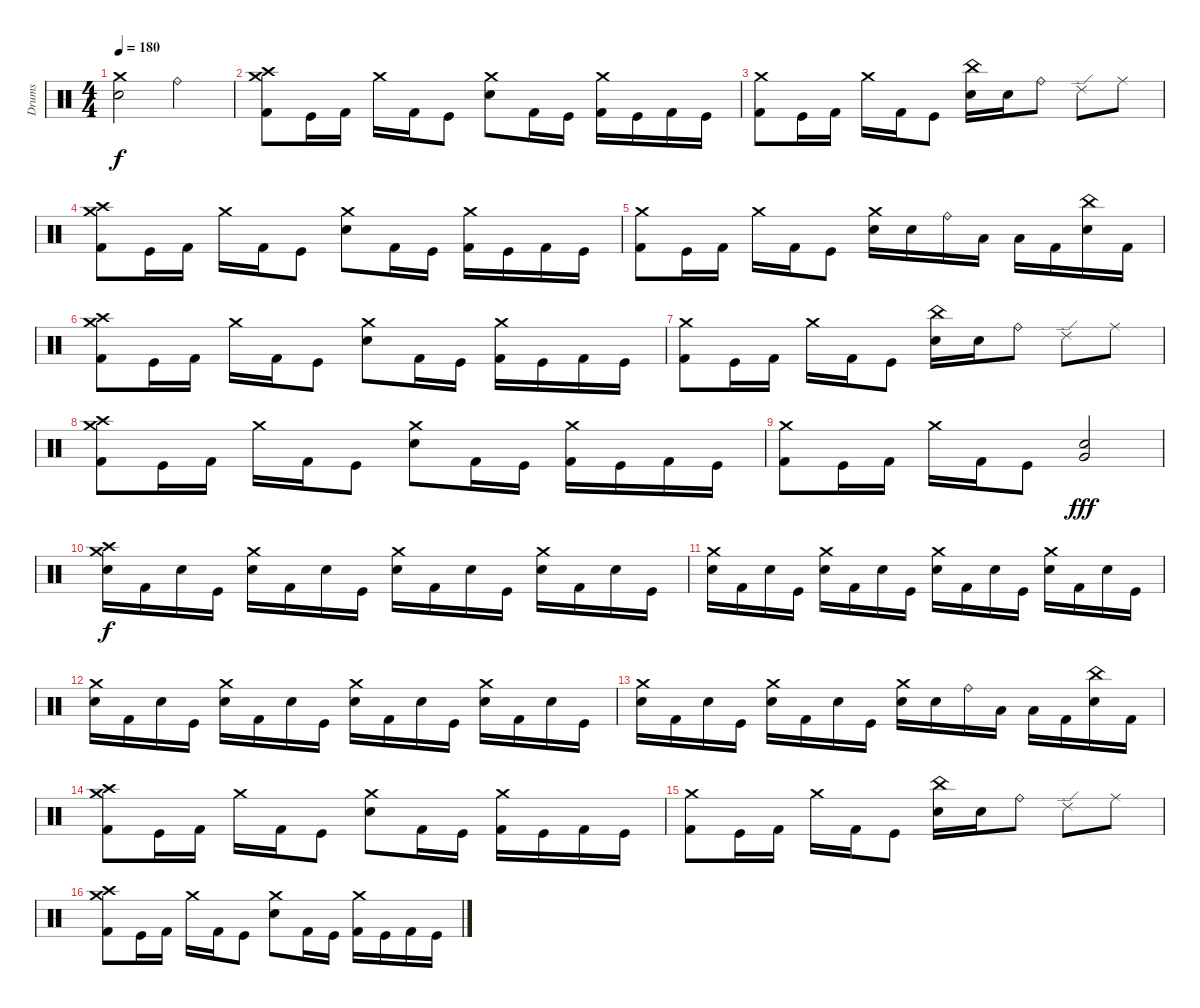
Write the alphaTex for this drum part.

\track ("Drums" "Drums") {instrument percussion}
\staff {score}
\articulation defaults
\ts (4 4)
\tempo 180
\clef neutral
\ks c
("Crash medium (hit)" "Electric Snare (hit)").2{dy f} "Ride (bell)".2 |
("Crash medium (hit)" "Crash high (hit)" "Kick (hit) 2").8 "Kick (hit)".16 "Kick (hit) 2".16 "Crash medium (hit)".16 "Kick (hit) 2".16 "Kick (hit)".8 ("Crash medium (hit)" "Electric Snare (hit)").8 "Kick (hit) 2".16 "Kick (hit)".16 ("Crash medium (hit)" "Kick (hit) 2").16 "Kick (hit)".16 "Kick (hit) 2".16 "Kick (hit)".16 |
("Crash medium (hit)" "Kick (hit) 2").8 "Kick (hit)".16 "Kick (hit) 2".16 "Crash medium (hit)".16 "Kick (hit) 2".16 "Kick (hit)".8 ("China (hit)" "Electric Snare (hit)").16 "Electric Snare (hit)".16 "Ride (bell)".8 "Ride (edge) 2".8 "Ride (middle)".8 |
("Crash medium (hit)" "Crash high (hit)" "Kick (hit) 2").8 "Kick (hit)".16 "Kick (hit) 2".16 "Crash medium (hit)".16 "Kick (hit) 2".16 "Kick (hit)".8 ("Crash medium (hit)" "Electric Snare (hit)").8 "Kick (hit) 2".16 "Kick (hit)".16 ("Crash medium (hit)" "Kick (hit) 2").16 "Kick (hit)".16 "Kick (hit) 2".16 "Kick (hit)".16 |
("Crash medium (hit)" "Kick (hit) 2").8 "Kick (hit)".16 "Kick (hit) 2".16 "Crash medium (hit)".16 "Kick (hit) 2".16 "Kick (hit)".8 ("Crash medium (hit)" "Electric Snare (hit)").16 "Electric Snare (hit)".16 "Ride (bell)".16 "Low Tom (hit)".16 "Low Tom (hit)".16 "Kick (hit) 2".16 ("China (hit)" "Electric Snare (hit)").16 "Kick (hit) 2".16 |
("Crash medium (hit)" "Crash high (hit)" "Kick (hit) 2").8 "Kick (hit)".16 "Kick (hit) 2".16 "Crash medium (hit)".16 "Kick (hit) 2".16 "Kick (hit)".8 ("Crash medium (hit)" "Electric Snare (hit)").8 "Kick (hit) 2".16 "Kick (hit)".16 ("Crash medium (hit)" "Kick (hit) 2").16 "Kick (hit)".16 "Kick (hit) 2".16 "Kick (hit)".16 |
("Crash medium (hit)" "Kick (hit) 2").8 "Kick (hit)".16 "Kick (hit) 2".16 "Crash medium (hit)".16 "Kick (hit) 2".16 "Kick (hit)".8 ("China (hit)" "Electric Snare (hit)").16 "Electric Snare (hit)".16 "Ride (bell)".8 "Ride (edge) 2".8 "Ride (middle)".8 |
("Crash medium (hit)" "Crash high (hit)" "Kick (hit) 2").8 "Kick (hit)".16 "Kick (hit) 2".16 "Crash medium (hit)".16 "Kick (hit) 2".16 "Kick (hit)".8 ("Crash medium (hit)" "Electric Snare (hit)").8 "Kick (hit) 2".16 "Kick (hit)".16 ("Crash medium (hit)" "Kick (hit) 2").16 "Kick (hit)".16 "Kick (hit) 2".16 "Kick (hit)".16 |
("Crash medium (hit)" "Kick (hit) 2").8 "Kick (hit)".16 "Kick (hit) 2".16 "Crash medium (hit)".16 "Kick (hit) 2".16 "Kick (hit)".8 ("Electric Snare (hit)" "Very Low Tom (hit)").2{dy fff} |
("Crash medium (hit)" "Crash high (hit)" "Electric Snare (hit)").16{dy f} "Kick (hit) 2".16 "Electric Snare (hit)".16 "Kick (hit)".16 ("Crash medium (hit)" "Electric Snare (hit)").16 "Kick (hit) 2".16 "Electric Snare (hit)".16 "Kick (hit)".16 ("Crash medium (hit)" "Electric Snare (hit)").16 "Kick (hit) 2".16 "Electric Snare (hit)".16 "Kick (hit)".16 ("Crash medium (hit)" "Electric Snare (hit)").16 "Kick (hit) 2".16 "Electric Snare (hit)".16 "Kick (hit)".16 |
("Crash medium (hit)" "Electric Snare (hit)").16 "Kick (hit) 2".16 "Electric Snare (hit)".16 "Kick (hit)".16 ("Crash medium (hit)" "Electric Snare (hit)").16 "Kick (hit) 2".16 "Electric Snare (hit)".16 "Kick (hit)".16 ("Crash medium (hit)" "Electric Snare (hit)").16 "Kick (hit) 2".16 "Electric Snare (hit)".16 "Kick (hit)".16 ("Crash medium (hit)" "Electric Snare (hit)").16 "Kick (hit) 2".16 "Electric Snare (hit)".16 "Kick (hit)".16 |
("Crash medium (hit)" "Electric Snare (hit)").16 "Kick (hit) 2".16 "Electric Snare (hit)".16 "Kick (hit)".16 ("Crash medium (hit)" "Electric Snare (hit)").16 "Kick (hit) 2".16 "Electric Snare (hit)".16 "Kick (hit)".16 ("Crash medium (hit)" "Electric Snare (hit)").16 "Kick (hit) 2".16 "Electric Snare (hit)".16 "Kick (hit)".16 ("Crash medium (hit)" "Electric Snare (hit)").16 "Kick (hit) 2".16 "Electric Snare (hit)".16 "Kick (hit)".16 |
("Crash medium (hit)" "Electric Snare (hit)").16 "Kick (hit) 2".16 "Electric Snare (hit)".16 "Kick (hit)".16 ("Crash medium (hit)" "Electric Snare (hit)").16 "Kick (hit) 2".16 "Electric Snare (hit)".16 "Kick (hit)".16 ("Crash medium (hit)" "Electric Snare (hit)").16 "Electric Snare (hit)".16 "Ride (bell)".16 "Low Tom (hit)".16 "Low Tom (hit)".16 "Kick (hit) 2".16 ("China (hit)" "Electric Snare (hit)").16 "Kick (hit) 2".16 |
("Crash medium (hit)" "Crash high (hit)" "Kick (hit) 2").8 "Kick (hit)".16 "Kick (hit) 2".16 "Crash medium (hit)".16 "Kick (hit) 2".16 "Kick (hit)".8 ("Crash medium (hit)" "Electric Snare (hit)").8 "Kick (hit) 2".16 "Kick (hit)".16 ("Crash medium (hit)" "Kick (hit) 2").16 "Kick (hit)".16 "Kick (hit) 2".16 "Kick (hit)".16 |
("Crash medium (hit)" "Kick (hit) 2").8 "Kick (hit)".16 "Kick (hit) 2".16 "Crash medium (hit)".16 "Kick (hit) 2".16 "Kick (hit)".8 ("China (hit)" "Electric Snare (hit)").16 "Electric Snare (hit)".16 "Ride (bell)".8 "Ride (edge) 2".8 "Ride (middle)".8 |
("Crash medium (hit)" "Crash high (hit)" "Kick (hit) 2").8 "Kick (hit)".16 "Kick (hit) 2".16 "Crash medium (hit)".16 "Kick (hit) 2".16 "Kick (hit)".8 ("Crash medium (hit)" "Electric Snare (hit)").8 "Kick (hit) 2".16 "Kick (hit)".16 ("Crash medium (hit)" "Kick (hit) 2").16 "Kick (hit)".16 "Kick (hit) 2".16 "Kick (hit)".16
